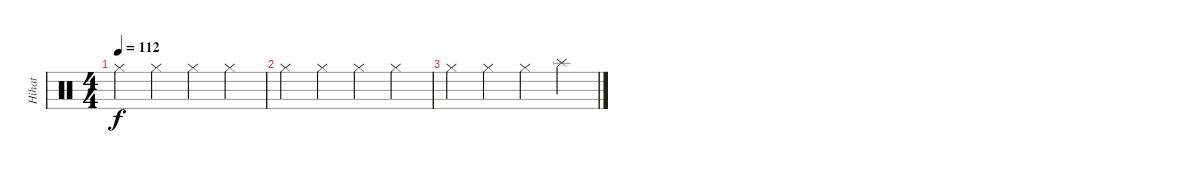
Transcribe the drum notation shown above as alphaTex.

\track ("Hihat" "Hihat") {instrument percussion}
\staff {score}
\articulation defaults
\ts (4 4)
\tempo 112
\clef neutral
\ks c "Hi-Hat (closed)".4{dy f} "Hi-Hat (closed)".4 "Hi-Hat (closed)".4 "Hi-Hat (closed)".4
|
"Hi-Hat (closed)".4 "Hi-Hat (closed)".4 "Hi-Hat (closed)".4 "Hi-Hat (closed)".4 |
"Hi-Hat (closed)".4 "Hi-Hat (closed)".4 "Hi-Hat (closed)".4 "Splash (hit)".4
